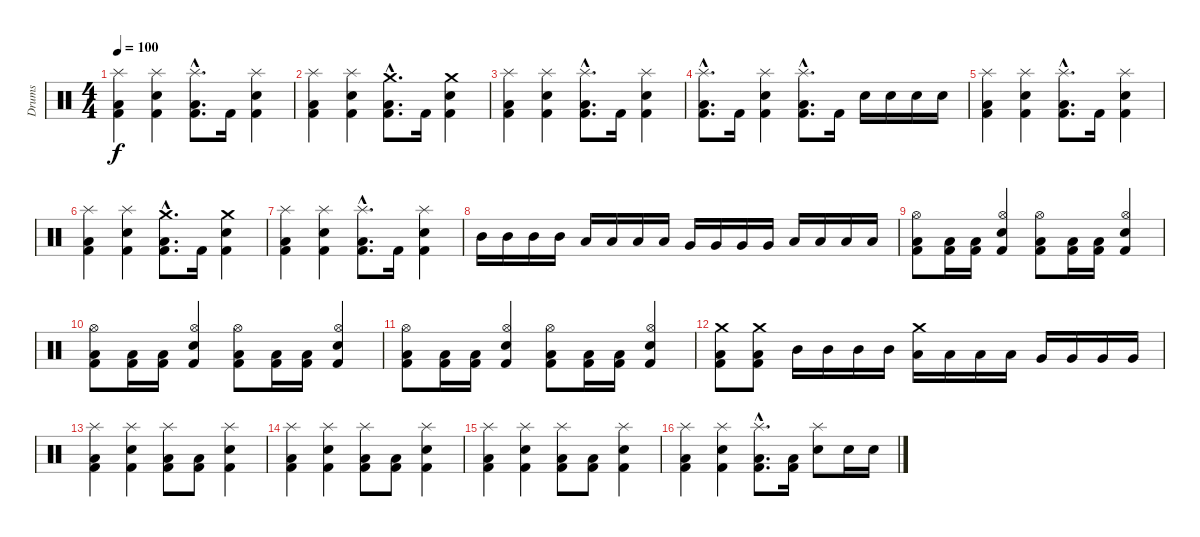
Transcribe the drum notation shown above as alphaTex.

\track ("Drums" "Drums") {instrument percussion}
\staff {score}
\articulation defaults
\ts (4 4)
\tempo 100
\clef neutral
\ks c
("Splash (hit)" "Low Floor Tom (hit)" "Kick (hit) 2").4{dy f} ("Splash (hit)" "Snare (hit) 2" "Kick (hit) 2").4 ("Splash (hit)"{hac} "Low Floor Tom (hit)"{hac} "Kick (hit) 2"{hac}).8{d} "Kick (hit) 2".16 ("Splash (hit)" "Snare (hit) 2" "Kick (hit) 2").4 |
("Splash (hit)" "Low Floor Tom (hit)" "Kick (hit) 2").4 ("Splash (hit)" "Snare (hit) 2" "Kick (hit) 2").4 ("Crash medium (hit)"{hac} "Low Floor Tom (hit)"{hac} "Kick (hit) 2"{hac}).8{d} "Kick (hit) 2".16 ("Crash medium (hit)" "Snare (hit) 2" "Kick (hit) 2").4 |
("Splash (hit)" "Low Floor Tom (hit)" "Kick (hit) 2").4 ("Splash (hit)" "Snare (hit) 2" "Kick (hit) 2").4 ("Splash (hit)"{hac} "Low Floor Tom (hit)"{hac} "Kick (hit) 2"{hac}).8{d} "Kick (hit) 2".16 ("Splash (hit)" "Snare (hit) 2" "Kick (hit) 2").4 |
("Splash (hit)"{hac} "Low Floor Tom (hit)"{hac} "Kick (hit) 2"{hac}).8{d} "Kick (hit) 2".16 ("Splash (hit)" "Snare (hit) 2" "Kick (hit) 2").4 ("Splash (hit)"{hac} "Low Floor Tom (hit)"{hac} "Kick (hit) 2"{hac}).8{d} "Kick (hit) 2".16 "Snare (hit) 2".16 "Snare (hit) 2".16 "Snare (hit) 2".16 "Snare (hit) 2".16 |
("Splash (hit)" "Low Floor Tom (hit)" "Kick (hit) 2").4 ("Splash (hit)" "Snare (hit) 2" "Kick (hit) 2").4 ("Splash (hit)"{hac} "Low Floor Tom (hit)"{hac} "Kick (hit) 2"{hac}).8{d} "Kick (hit) 2".16 ("Splash (hit)" "Snare (hit) 2" "Kick (hit) 2").4 |
("Splash (hit)" "Low Floor Tom (hit)" "Kick (hit) 2").4 ("Splash (hit)" "Snare (hit) 2" "Kick (hit) 2").4 ("Crash medium (hit)"{hac} "Low Floor Tom (hit)"{hac} "Kick (hit) 2"{hac}).8{d} "Kick (hit) 2".16 ("Crash medium (hit)" "Snare (hit) 2" "Kick (hit) 2").4 |
("Splash (hit)" "Low Floor Tom (hit)" "Kick (hit) 2").4 ("Splash (hit)" "Snare (hit) 2" "Kick (hit) 2").4 ("Splash (hit)"{hac} "Low Floor Tom (hit)"{hac} "Kick (hit) 2"{hac}).8{d} "Kick (hit) 2".16 ("Splash (hit)" "Snare (hit) 2" "Kick (hit) 2").4 |
"Mid Tom (hit)".16 "Mid Tom (hit)".16 "Mid Tom (hit)".16 "Mid Tom (hit)".16 "Low Tom (hit)".16 "Low Tom (hit)".16 "Low Tom (hit)".16 "Low Tom (hit)".16 "Very Low Tom (hit)".16 "Very Low Tom (hit)".16 "Very Low Tom (hit)".16 "Very Low Tom (hit)".16 "Low Floor Tom (hit)".16 "Low Floor Tom (hit)".16 "Low Floor Tom (hit)".16 "Low Floor Tom (hit)".16 |
("Hi-Hat (open)" "Low Floor Tom (hit)" "Kick (hit) 2").8 ("Low Floor Tom (hit)" "Kick (hit) 2").16 ("Low Floor Tom (hit)" "Kick (hit) 2").16 ("Hi-Hat (open)" "Electric Snare (hit)" "Kick (hit) 2").4 ("Hi-Hat (open)" "Low Floor Tom (hit)" "Kick (hit) 2").8 ("Low Floor Tom (hit)" "Kick (hit) 2").16 ("Low Floor Tom (hit)" "Kick (hit) 2").16 ("Hi-Hat (open)" "Electric Snare (hit)" "Kick (hit) 2").4 |
("Hi-Hat (open)" "Low Floor Tom (hit)" "Kick (hit) 2").8 ("Low Floor Tom (hit)" "Kick (hit) 2").16 ("Low Floor Tom (hit)" "Kick (hit) 2").16 ("Hi-Hat (open)" "Electric Snare (hit)" "Kick (hit) 2").4 ("Hi-Hat (open)" "Low Floor Tom (hit)" "Kick (hit) 2").8 ("Low Floor Tom (hit)" "Kick (hit) 2").16 ("Low Floor Tom (hit)" "Kick (hit) 2").16 ("Hi-Hat (open)" "Electric Snare (hit)" "Kick (hit) 2").4 |
("Hi-Hat (open)" "Low Floor Tom (hit)" "Kick (hit) 2").8 ("Low Floor Tom (hit)" "Kick (hit) 2").16 ("Low Floor Tom (hit)" "Kick (hit) 2").16 ("Hi-Hat (open)" "Electric Snare (hit)" "Kick (hit) 2").4 ("Hi-Hat (open)" "Low Floor Tom (hit)" "Kick (hit) 2").8 ("Low Floor Tom (hit)" "Kick (hit) 2").16 ("Low Floor Tom (hit)" "Kick (hit) 2").16 ("Hi-Hat (open)" "Electric Snare (hit)" "Kick (hit) 2").4 |
("Crash medium (hit)" "Low Floor Tom (hit)" "Kick (hit) 2").8 ("Crash medium (hit)" "Low Floor Tom (hit)" "Kick (hit) 2").8 "Mid Tom (hit)".16 "Mid Tom (hit)".16 "Mid Tom (hit)".16 "Mid Tom (hit)".16 ("Crash medium (hit)" "Low Tom (hit)").16 "Low Tom (hit)".16 "Low Tom (hit)".16 "Low Tom (hit)".16 "Very Low Tom (hit)".16 "Very Low Tom (hit)".16 "Very Low Tom (hit)".16 "Very Low Tom (hit)".16 |
("Splash (hit)" "Low Floor Tom (hit)" "Kick (hit) 2").4 ("Splash (hit)" "Snare (hit) 2" "Kick (hit) 2").4 ("Splash (hit)" "Low Floor Tom (hit)" "Kick (hit) 2").8 ("Low Floor Tom (hit)" "Kick (hit) 2").8 ("Splash (hit)" "Snare (hit) 2" "Kick (hit) 2").4 |
("Splash (hit)" "Low Floor Tom (hit)" "Kick (hit) 2").4 ("Splash (hit)" "Snare (hit) 2" "Kick (hit) 2").4 ("Splash (hit)" "Low Floor Tom (hit)" "Kick (hit) 2").8 ("Low Floor Tom (hit)" "Kick (hit) 2").8 ("Splash (hit)" "Snare (hit) 2" "Kick (hit) 2").4 |
("Splash (hit)" "Low Floor Tom (hit)" "Kick (hit) 2").4 ("Splash (hit)" "Snare (hit) 2" "Kick (hit) 2").4 ("Splash (hit)" "Low Floor Tom (hit)" "Kick (hit) 2").8 ("Low Floor Tom (hit)" "Kick (hit) 2").8 ("Splash (hit)" "Snare (hit) 2" "Kick (hit) 2").4 |
("Splash (hit)" "Low Floor Tom (hit)" "Kick (hit) 2").4 ("Splash (hit)" "Snare (hit) 2" "Kick (hit) 2").4 ("Splash (hit)"{hac} "Low Floor Tom (hit)"{hac} "Kick (hit) 2"{hac}).8{d} ("Low Floor Tom (hit)" "Kick (hit) 2").16 ("Splash (hit)" "Snare (hit) 2").8 "Snare (hit) 2".16 "Snare (hit) 2".16
